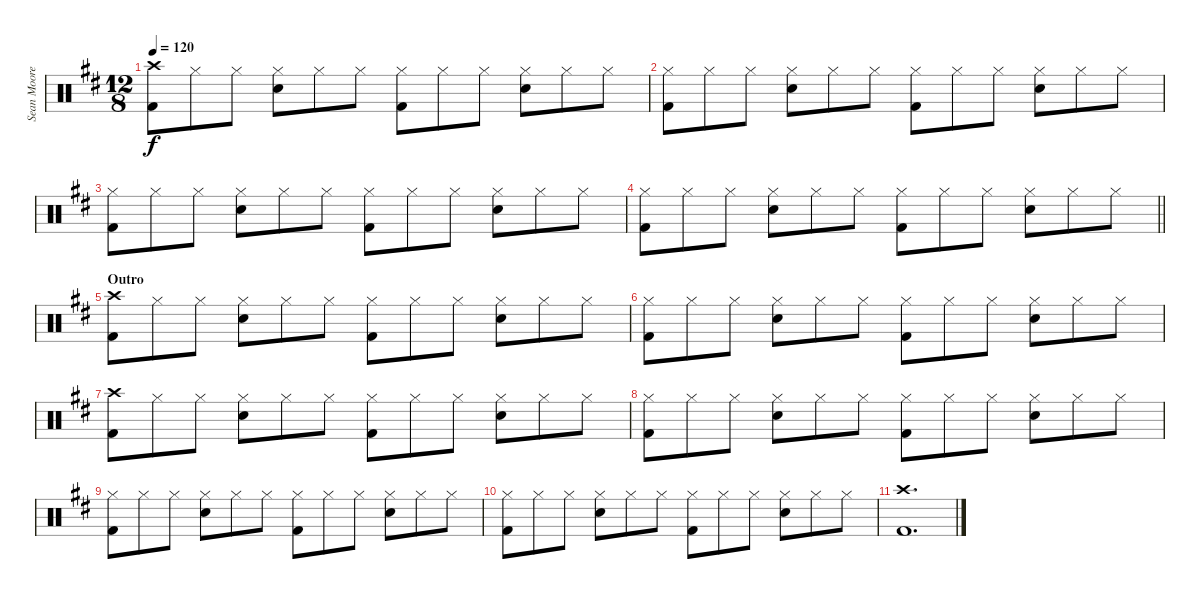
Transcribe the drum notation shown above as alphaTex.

\track ("Sean Moore (Drums)" "Sean Moore") {instrument percussion}
\staff {score}
\articulation defaults
\ts (12 8)
\tempo 120
\clef neutral
\ks d
("Crash high (hit)" "Kick (hit) 2").8{dy f} "Hi-Hat (closed)".8 "Hi-Hat (closed)".8 ("Hi-Hat (closed)" "Electric Snare (hit)").8 "Hi-Hat (closed)".8 "Hi-Hat (closed)".8 ("Hi-Hat (closed)" "Kick (hit) 2").8 "Hi-Hat (closed)".8 "Hi-Hat (closed)".8 ("Hi-Hat (closed)" "Electric Snare (hit)").8 "Hi-Hat (closed)".8 "Hi-Hat (closed)".8 |
("Hi-Hat (closed)" "Kick (hit) 2").8 "Hi-Hat (closed)".8 "Hi-Hat (closed)".8 ("Hi-Hat (closed)" "Electric Snare (hit)").8 "Hi-Hat (closed)".8 "Hi-Hat (closed)".8 ("Hi-Hat (closed)" "Kick (hit) 2").8 "Hi-Hat (closed)".8 "Hi-Hat (closed)".8 ("Hi-Hat (closed)" "Electric Snare (hit)").8 "Hi-Hat (closed)".8 "Hi-Hat (closed)".8 |
("Hi-Hat (closed)" "Kick (hit) 2").8 "Hi-Hat (closed)".8 "Hi-Hat (closed)".8 ("Hi-Hat (closed)" "Electric Snare (hit)").8 "Hi-Hat (closed)".8 "Hi-Hat (closed)".8 ("Hi-Hat (closed)" "Kick (hit) 2").8 "Hi-Hat (closed)".8 "Hi-Hat (closed)".8 ("Hi-Hat (closed)" "Electric Snare (hit)").8 "Hi-Hat (closed)".8 "Hi-Hat (closed)".8 |
\barLineRight lightlight
("Hi-Hat (closed)" "Kick (hit) 2").8 "Hi-Hat (closed)".8 "Hi-Hat (closed)".8 ("Hi-Hat (closed)" "Electric Snare (hit)").8 "Hi-Hat (closed)".8 "Hi-Hat (closed)".8 ("Hi-Hat (closed)" "Kick (hit) 2").8 "Hi-Hat (closed)".8 "Hi-Hat (closed)".8 ("Hi-Hat (closed)" "Electric Snare (hit)").8 "Hi-Hat (closed)".8 "Hi-Hat (closed)".8 |
\section ("" "Outro")
("Crash high (hit)" "Kick (hit) 2").8 "Hi-Hat (closed)".8 "Hi-Hat (closed)".8 ("Hi-Hat (closed)" "Electric Snare (hit)").8 "Hi-Hat (closed)".8 "Hi-Hat (closed)".8 ("Hi-Hat (closed)" "Kick (hit) 2").8 "Hi-Hat (closed)".8 "Hi-Hat (closed)".8 ("Hi-Hat (closed)" "Electric Snare (hit)").8 "Hi-Hat (closed)".8 "Hi-Hat (closed)".8 |
("Hi-Hat (closed)" "Kick (hit) 2").8 "Hi-Hat (closed)".8 "Hi-Hat (closed)".8 ("Hi-Hat (closed)" "Electric Snare (hit)").8 "Hi-Hat (closed)".8 "Hi-Hat (closed)".8 ("Hi-Hat (closed)" "Kick (hit) 2").8 "Hi-Hat (closed)".8 "Hi-Hat (closed)".8 ("Hi-Hat (closed)" "Electric Snare (hit)").8 "Hi-Hat (closed)".8 "Hi-Hat (closed)".8 |
("Crash high (hit)" "Kick (hit) 2").8 "Hi-Hat (closed)".8 "Hi-Hat (closed)".8 ("Hi-Hat (closed)" "Electric Snare (hit)").8 "Hi-Hat (closed)".8 "Hi-Hat (closed)".8 ("Hi-Hat (closed)" "Kick (hit) 2").8 "Hi-Hat (closed)".8 "Hi-Hat (closed)".8 ("Hi-Hat (closed)" "Electric Snare (hit)").8 "Hi-Hat (closed)".8 "Hi-Hat (closed)".8 |
("Hi-Hat (closed)" "Kick (hit) 2").8 "Hi-Hat (closed)".8 "Hi-Hat (closed)".8 ("Hi-Hat (closed)" "Electric Snare (hit)").8 "Hi-Hat (closed)".8 "Hi-Hat (closed)".8 ("Hi-Hat (closed)" "Kick (hit) 2").8 "Hi-Hat (closed)".8 "Hi-Hat (closed)".8 ("Hi-Hat (closed)" "Electric Snare (hit)").8 "Hi-Hat (closed)".8 "Hi-Hat (closed)".8 |
("Hi-Hat (closed)" "Kick (hit) 2").8 "Hi-Hat (closed)".8 "Hi-Hat (closed)".8 ("Hi-Hat (closed)" "Electric Snare (hit)").8 "Hi-Hat (closed)".8 "Hi-Hat (closed)".8 ("Hi-Hat (closed)" "Kick (hit) 2").8 "Hi-Hat (closed)".8 "Hi-Hat (closed)".8 ("Hi-Hat (closed)" "Electric Snare (hit)").8 "Hi-Hat (closed)".8 "Hi-Hat (closed)".8 |
("Hi-Hat (closed)" "Kick (hit) 2").8 "Hi-Hat (closed)".8 "Hi-Hat (closed)".8 ("Hi-Hat (closed)" "Electric Snare (hit)").8 "Hi-Hat (closed)".8 "Hi-Hat (closed)".8 ("Hi-Hat (closed)" "Kick (hit) 2").8 "Hi-Hat (closed)".8 "Hi-Hat (closed)".8 ("Hi-Hat (closed)" "Electric Snare (hit)").8 "Hi-Hat (closed)".8 "Hi-Hat (closed)".8 |
("Crash high (hit)" "Kick (hit) 2").1{d}
